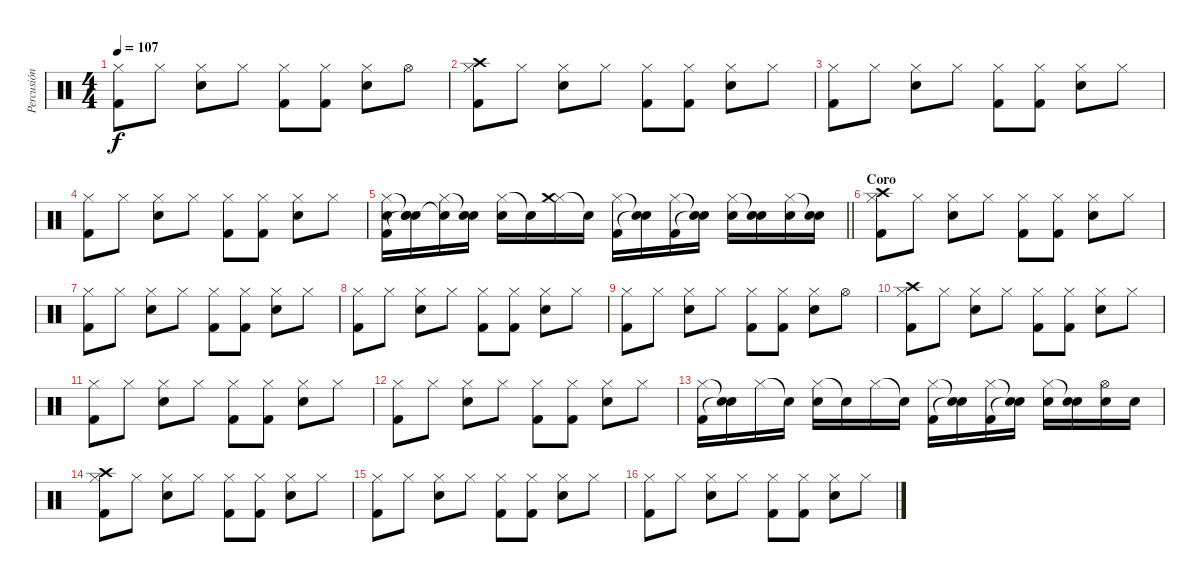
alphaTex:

\track ("Percusión" "Percusión") {instrument percussion}
\staff {score}
\articulation defaults
\ts (4 4)
\tempo 107
\clef neutral
\ks c
("Hi-Hat (closed)" "Kick (hit) 2").8{dy f} "Hi-Hat (closed)".8 ("Hi-Hat (closed)" "Snare (hit) 2").8 "Hi-Hat (closed)".8 ("Hi-Hat (closed)" "Kick (hit) 2").8 ("Hi-Hat (closed)" "Kick (hit) 2").8 ("Hi-Hat (closed)" "Snare (hit) 2").8 "Hi-Hat (open)".8 |
("Hi-Hat (closed)" "Kick (hit) 2" "Crash high (hit)").8 "Hi-Hat (closed)".8 ("Hi-Hat (closed)" "Snare (hit) 2").8 "Hi-Hat (closed)".8 ("Hi-Hat (closed)" "Kick (hit) 2").8 ("Hi-Hat (closed)" "Kick (hit) 2").8 ("Hi-Hat (closed)" "Snare (hit) 2").8 "Hi-Hat (closed)".8 |
("Hi-Hat (closed)" "Kick (hit) 2").8 "Hi-Hat (closed)".8 ("Hi-Hat (closed)" "Snare (hit) 2").8 "Hi-Hat (closed)".8 ("Hi-Hat (closed)" "Kick (hit) 2").8 ("Hi-Hat (closed)" "Kick (hit) 2").8 ("Hi-Hat (closed)" "Snare (hit) 2").8 "Hi-Hat (closed)".8 |
("Hi-Hat (closed)" "Kick (hit) 2").8 "Hi-Hat (closed)".8 ("Hi-Hat (closed)" "Snare (hit) 2").8 "Hi-Hat (closed)".8 ("Hi-Hat (closed)" "Kick (hit) 2").8 ("Hi-Hat (closed)" "Kick (hit) 2").8 ("Hi-Hat (closed)" "Snare (hit) 2").8 "Hi-Hat (closed)".8 |
\barLineRight lightlight
("Hi-Hat (closed)" "Snare (hit) 2" "Kick (hit) 2").16 ("Snare (hit)"{t} "Snare (hit) 2" "Snare (hit)"{t}).16 ("Hi-Hat (closed)" "Snare (hit) 2"{t}).16 ("Snare (hit)"{t} "Snare (hit) 2").16 ("Hi-Hat (closed)" "Snare (hit) 2").16 "Snare (hit)"{t}.16 ("Hi-Hat (closed)" "Crash medium (hit)").16 "Snare (hit)"{t}.16 ("Hi-Hat (closed)" "Kick (hit) 2").16 ("Snare (hit)"{t} "Snare (hit)"{t}).16 ("Hi-Hat (closed)" "Kick (hit) 2").16 ("Snare (hit)"{t} "Snare (hit)"{t}).16 ("Hi-Hat (closed)" "Snare (hit) 2").16 ("Snare (hit)"{t} "Snare (hit) 2").16 ("Hi-Hat (closed)" "Snare (hit) 2").16 ("Snare (hit)"{t} "Snare (hit) 2").16 |
\section ("" "Coro")
("Hi-Hat (closed)" "Kick (hit) 2" "Crash high (hit)").8 "Hi-Hat (closed)".8 ("Hi-Hat (closed)" "Snare (hit) 2").8 "Hi-Hat (closed)".8 ("Hi-Hat (closed)" "Kick (hit) 2").8 ("Hi-Hat (closed)" "Kick (hit) 2").8 ("Hi-Hat (closed)" "Snare (hit) 2").8 "Hi-Hat (closed)".8 |
("Hi-Hat (closed)" "Kick (hit) 2").8 "Hi-Hat (closed)".8 ("Hi-Hat (closed)" "Snare (hit) 2").8 "Hi-Hat (closed)".8 ("Hi-Hat (closed)" "Kick (hit) 2").8 ("Hi-Hat (closed)" "Kick (hit) 2").8 ("Hi-Hat (closed)" "Snare (hit) 2").8 "Hi-Hat (closed)".8 |
("Hi-Hat (closed)" "Kick (hit) 2").8 "Hi-Hat (closed)".8 ("Hi-Hat (closed)" "Snare (hit) 2").8 "Hi-Hat (closed)".8 ("Hi-Hat (closed)" "Kick (hit) 2").8 ("Hi-Hat (closed)" "Kick (hit) 2").8 ("Hi-Hat (closed)" "Snare (hit) 2").8 "Hi-Hat (closed)".8 |
("Hi-Hat (closed)" "Kick (hit) 2").8 "Hi-Hat (closed)".8 ("Hi-Hat (closed)" "Snare (hit) 2").8 "Hi-Hat (closed)".8 ("Hi-Hat (closed)" "Kick (hit) 2").8 ("Hi-Hat (closed)" "Kick (hit) 2").8 ("Hi-Hat (closed)" "Snare (hit) 2").8 "Hi-Hat (open)".8 |
("Hi-Hat (closed)" "Kick (hit) 2" "Crash high (hit)").8 "Hi-Hat (closed)".8 ("Hi-Hat (closed)" "Snare (hit) 2").8 "Hi-Hat (closed)".8 ("Hi-Hat (closed)" "Kick (hit) 2").8 ("Hi-Hat (closed)" "Kick (hit) 2").8 ("Hi-Hat (closed)" "Snare (hit) 2").8 "Hi-Hat (closed)".8 |
("Hi-Hat (closed)" "Kick (hit) 2").8 "Hi-Hat (closed)".8 ("Hi-Hat (closed)" "Snare (hit) 2").8 "Hi-Hat (closed)".8 ("Hi-Hat (closed)" "Kick (hit) 2").8 ("Hi-Hat (closed)" "Kick (hit) 2").8 ("Hi-Hat (closed)" "Snare (hit) 2").8 "Hi-Hat (closed)".8 |
("Hi-Hat (closed)" "Kick (hit) 2").8 "Hi-Hat (closed)".8 ("Hi-Hat (closed)" "Snare (hit) 2").8 "Hi-Hat (closed)".8 ("Hi-Hat (closed)" "Kick (hit) 2").8 ("Hi-Hat (closed)" "Kick (hit) 2").8 ("Hi-Hat (closed)" "Snare (hit) 2").8 "Hi-Hat (closed)".8 |
("Hi-Hat (closed)" "Kick (hit) 2").16 ("Snare (hit)"{t} "Snare (hit)"{t}).16 "Hi-Hat (closed)".16 "Snare (hit)"{t}.16 ("Hi-Hat (closed)" "Snare (hit) 2").16 "Snare (hit)"{t}.16 "Hi-Hat (closed)".16 "Snare (hit)"{t}.16 ("Hi-Hat (closed)" "Kick (hit) 2").16 ("Snare (hit)"{t} "Snare (hit)"{t}).16 ("Hi-Hat (closed)" "Kick (hit) 2").16 ("Snare (hit)"{t} "Snare (hit)"{t}).16 ("Hi-Hat (closed)" "Snare (hit) 2").16 ("Snare (hit)"{t} "Snare (hit) 2").16 ("Hi-Hat (open)" "Snare (hit) 2").16 "Snare (hit) 2".16 |
("Hi-Hat (closed)" "Kick (hit) 2" "Crash high (hit)").8 "Hi-Hat (closed)".8 ("Hi-Hat (closed)" "Snare (hit) 2").8 "Hi-Hat (closed)".8 ("Hi-Hat (closed)" "Kick (hit) 2").8 ("Hi-Hat (closed)" "Kick (hit) 2").8 ("Hi-Hat (closed)" "Snare (hit) 2").8 "Hi-Hat (closed)".8 |
("Hi-Hat (closed)" "Kick (hit) 2").8 "Hi-Hat (closed)".8 ("Hi-Hat (closed)" "Snare (hit) 2").8 "Hi-Hat (closed)".8 ("Hi-Hat (closed)" "Kick (hit) 2").8 ("Hi-Hat (closed)" "Kick (hit) 2").8 ("Hi-Hat (closed)" "Snare (hit) 2").8 "Hi-Hat (closed)".8 |
("Hi-Hat (closed)" "Kick (hit) 2").8 "Hi-Hat (closed)".8 ("Hi-Hat (closed)" "Snare (hit) 2").8 "Hi-Hat (closed)".8 ("Hi-Hat (closed)" "Kick (hit) 2").8 ("Hi-Hat (closed)" "Kick (hit) 2").8 ("Hi-Hat (closed)" "Snare (hit) 2").8 "Hi-Hat (closed)".8
